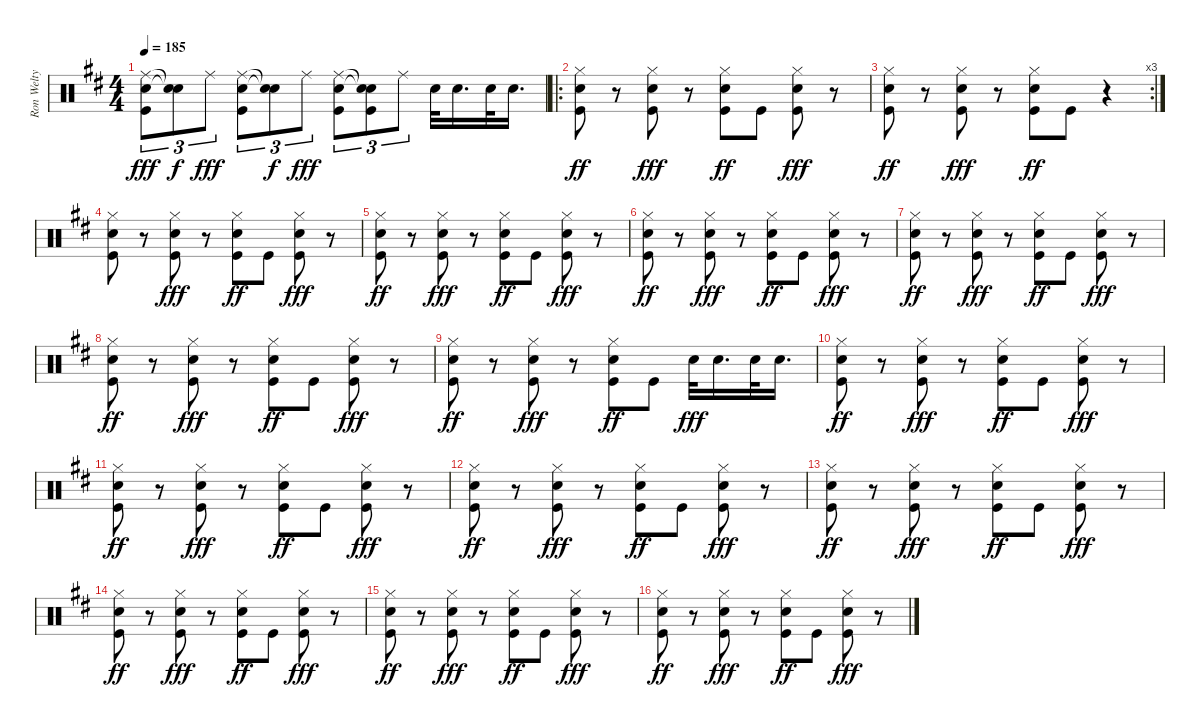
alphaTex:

\track ("Ron Welty" "Ron Welty") {instrument percussion}
\staff {score}
\articulation defaults
\ts (4 4)
\tempo 185
\clef neutral
\ks d
("Ride (middle)" "Snare (hit) 2" "Kick (hit)").8{tu (3 2) dy fff} ("Snare (hit)"{t} "Snare (hit)"{t}).8{tu (3 2) dy f} "Ride (middle)".8{tu (3 2) dy fff} ("Ride (middle)" "Snare (hit) 2" "Kick (hit)").8{tu (3 2)} ("Snare (hit)"{t} "Snare (hit)"{t}).8{tu (3 2) dy f} "Ride (middle)".8{tu (3 2) dy fff} ("Ride (middle)" "Snare (hit) 2" "Kick (hit)").8{tu (3 2)} ("Snare (hit)"{t} "Snare (hit)"{t} "Kick (hit)").8{tu (3 2)} "Ride (middle)".8{tu (3 2)} "Snare (hit) 2".32 "Snare (hit) 2".16{d} "Snare (hit) 2".32 "Snare (hit) 2".16{d} |
\ro
("Hi-Hat (closed)" "Snare (hit) 2" "Kick (hit)").8{dy ff} r.8 ("Hi-Hat (closed)" "Snare (hit) 2" "Kick (hit)").8{dy fff} r.8 ("Hi-Hat (closed)" "Snare (hit) 2" "Kick (hit)").8{dy ff} "Kick (hit)".8 ("Hi-Hat (closed)" "Snare (hit) 2" "Kick (hit)").8{dy fff} r.8 |
\rc 3
("Hi-Hat (closed)" "Snare (hit) 2" "Kick (hit)").8{dy ff} r.8 ("Hi-Hat (closed)" "Snare (hit) 2" "Kick (hit)").8{dy fff} r.8 ("Hi-Hat (closed)" "Snare (hit) 2" "Kick (hit)").8{dy ff} "Kick (hit)".8 r.4 |
("Hi-Hat (closed)" "Snare (hit) 2" "Kick (hit)").8 r.8 ("Hi-Hat (closed)" "Snare (hit) 2" "Kick (hit)").8{dy fff} r.8 ("Hi-Hat (closed)" "Snare (hit) 2" "Kick (hit)").8{dy ff} "Kick (hit)".8 ("Hi-Hat (closed)" "Snare (hit) 2" "Kick (hit)").8{dy fff} r.8 |
("Hi-Hat (closed)" "Snare (hit) 2" "Kick (hit)").8{dy ff} r.8 ("Hi-Hat (closed)" "Snare (hit) 2" "Kick (hit)").8{dy fff} r.8 ("Hi-Hat (closed)" "Snare (hit) 2" "Kick (hit)").8{dy ff} "Kick (hit)".8 ("Hi-Hat (closed)" "Snare (hit) 2" "Kick (hit)").8{dy fff} r.8 |
("Hi-Hat (closed)" "Snare (hit) 2" "Kick (hit)").8{dy ff} r.8 ("Hi-Hat (closed)" "Snare (hit) 2" "Kick (hit)").8{dy fff} r.8 ("Hi-Hat (closed)" "Snare (hit) 2" "Kick (hit)").8{dy ff} "Kick (hit)".8 ("Hi-Hat (closed)" "Snare (hit) 2" "Kick (hit)").8{dy fff} r.8 |
("Hi-Hat (closed)" "Snare (hit) 2" "Kick (hit)").8{dy ff} r.8 ("Hi-Hat (closed)" "Snare (hit) 2" "Kick (hit)").8{dy fff} r.8 ("Hi-Hat (closed)" "Snare (hit) 2" "Kick (hit)").8{dy ff} "Kick (hit)".8 ("Hi-Hat (closed)" "Snare (hit) 2" "Kick (hit)").8{dy fff} r.8 |
("Hi-Hat (closed)" "Snare (hit) 2" "Kick (hit)").8{dy ff} r.8 ("Hi-Hat (closed)" "Snare (hit) 2" "Kick (hit)").8{dy fff} r.8 ("Hi-Hat (closed)" "Snare (hit) 2" "Kick (hit)").8{dy ff} "Kick (hit)".8 ("Hi-Hat (closed)" "Snare (hit) 2" "Kick (hit)").8{dy fff} r.8 |
("Hi-Hat (closed)" "Snare (hit) 2" "Kick (hit)").8{dy ff} r.8 ("Hi-Hat (closed)" "Snare (hit) 2" "Kick (hit)").8{dy fff} r.8 ("Hi-Hat (closed)" "Snare (hit) 2" "Kick (hit)").8{dy ff} "Kick (hit)".8 "Snare (hit) 2".32{dy fff} "Snare (hit) 2".16{d} "Snare (hit) 2".32 "Snare (hit) 2".16{d} |
("Hi-Hat (closed)" "Snare (hit) 2" "Kick (hit)").8{dy ff} r.8 ("Hi-Hat (closed)" "Snare (hit) 2" "Kick (hit)").8{dy fff} r.8 ("Hi-Hat (closed)" "Snare (hit) 2" "Kick (hit)").8{dy ff} "Kick (hit)".8 ("Hi-Hat (closed)" "Snare (hit) 2" "Kick (hit)").8{dy fff} r.8 |
("Hi-Hat (closed)" "Snare (hit) 2" "Kick (hit)").8{dy ff} r.8 ("Hi-Hat (closed)" "Snare (hit) 2" "Kick (hit)").8{dy fff} r.8 ("Hi-Hat (closed)" "Snare (hit) 2" "Kick (hit)").8{dy ff} "Kick (hit)".8 ("Hi-Hat (closed)" "Snare (hit) 2" "Kick (hit)").8{dy fff} r.8 |
("Hi-Hat (closed)" "Snare (hit) 2" "Kick (hit)").8{dy ff} r.8 ("Hi-Hat (closed)" "Snare (hit) 2" "Kick (hit)").8{dy fff} r.8 ("Hi-Hat (closed)" "Snare (hit) 2" "Kick (hit)").8{dy ff} "Kick (hit)".8 ("Hi-Hat (closed)" "Snare (hit) 2" "Kick (hit)").8{dy fff} r.8 |
("Hi-Hat (closed)" "Snare (hit) 2" "Kick (hit)").8{dy ff} r.8 ("Hi-Hat (closed)" "Snare (hit) 2" "Kick (hit)").8{dy fff} r.8 ("Hi-Hat (closed)" "Snare (hit) 2" "Kick (hit)").8{dy ff} "Kick (hit)".8 ("Hi-Hat (closed)" "Snare (hit) 2" "Kick (hit)").8{dy fff} r.8 |
("Hi-Hat (closed)" "Snare (hit) 2" "Kick (hit)").8{dy ff} r.8 ("Hi-Hat (closed)" "Snare (hit) 2" "Kick (hit)").8{dy fff} r.8 ("Hi-Hat (closed)" "Snare (hit) 2" "Kick (hit)").8{dy ff} "Kick (hit)".8 ("Hi-Hat (closed)" "Snare (hit) 2" "Kick (hit)").8{dy fff} r.8 |
("Hi-Hat (closed)" "Snare (hit) 2" "Kick (hit)").8{dy ff} r.8 ("Hi-Hat (closed)" "Snare (hit) 2" "Kick (hit)").8{dy fff} r.8 ("Hi-Hat (closed)" "Snare (hit) 2" "Kick (hit)").8{dy ff} "Kick (hit)".8 ("Hi-Hat (closed)" "Snare (hit) 2" "Kick (hit)").8{dy fff} r.8 |
("Hi-Hat (closed)" "Snare (hit) 2" "Kick (hit)").8{dy ff} r.8 ("Hi-Hat (closed)" "Snare (hit) 2" "Kick (hit)").8{dy fff} r.8 ("Hi-Hat (closed)" "Snare (hit) 2" "Kick (hit)").8{dy ff} "Kick (hit)".8 ("Hi-Hat (closed)" "Snare (hit) 2" "Kick (hit)").8{dy fff} r.8
